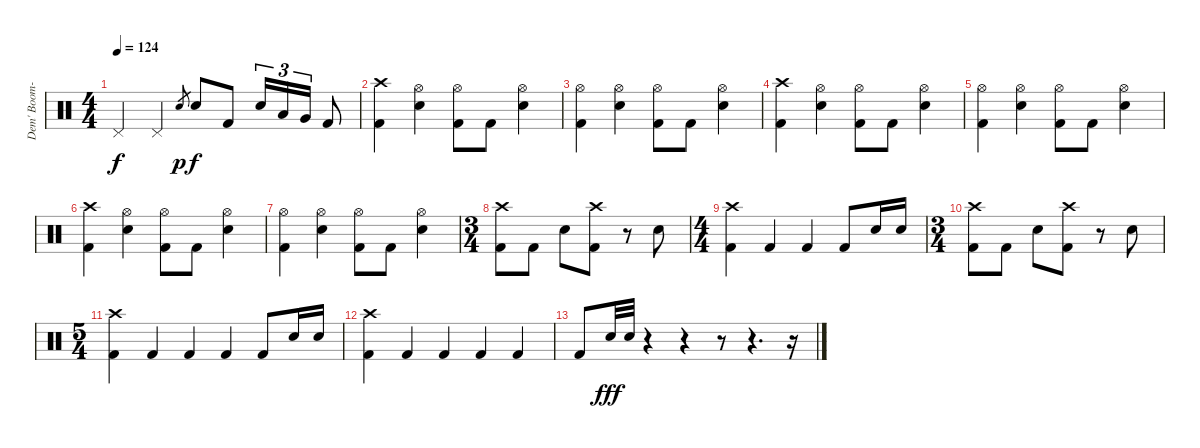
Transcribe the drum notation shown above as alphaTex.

\track ("Dem' Boom-Booms" "Dem' Boom-") {instrument percussion}
\staff {score}
\articulation defaults
\ts (4 4)
\tempo 124
\clef neutral
\ks c "Pedal Hi-Hat (hit)".4{dy f} "Pedal Hi-Hat (hit)".4 "Electric Snare (hit)".8{gr dy p} "Electric Snare (hit)".8{dy f} "Kick (hit) 2".8 "Electric Snare (hit)".16{tu (3 2)} "Low Tom (hit)".16{tu (3 2)} "Very Low Tom (hit)".16{tu (3 2)} "Kick (hit) 2".8
|
("Crash high (hit)" "Kick (hit) 2").4 ("Hi-Hat (open)" "Electric Snare (hit)").4 ("Hi-Hat (open)" "Kick (hit) 2").8 "Kick (hit) 2".8 ("Hi-Hat (open)" "Electric Snare (hit)").4 |
("Hi-Hat (open)" "Kick (hit) 2").4 ("Hi-Hat (open)" "Electric Snare (hit)").4 ("Hi-Hat (open)" "Kick (hit) 2").8 "Kick (hit) 2".8 ("Hi-Hat (open)" "Electric Snare (hit)").4 |
("Crash high (hit)" "Kick (hit) 2").4 ("Hi-Hat (open)" "Electric Snare (hit)").4 ("Hi-Hat (open)" "Kick (hit) 2").8 "Kick (hit) 2".8 ("Hi-Hat (open)" "Electric Snare (hit)").4 |
("Hi-Hat (open)" "Kick (hit) 2").4 ("Hi-Hat (open)" "Electric Snare (hit)").4 ("Hi-Hat (open)" "Kick (hit) 2").8 "Kick (hit) 2".8 ("Hi-Hat (open)" "Electric Snare (hit)").4 |
("Crash high (hit)" "Kick (hit) 2").4 ("Hi-Hat (open)" "Electric Snare (hit)").4 ("Hi-Hat (open)" "Kick (hit) 2").8 "Kick (hit) 2".8 ("Hi-Hat (open)" "Electric Snare (hit)").4 |
("Hi-Hat (open)" "Kick (hit) 2").4 ("Hi-Hat (open)" "Electric Snare (hit)").4 ("Hi-Hat (open)" "Kick (hit) 2").8 "Kick (hit) 2".8 ("Hi-Hat (open)" "Electric Snare (hit)").4 |
\ts (3 4)
("Crash high (hit)" "Kick (hit) 2").8 "Kick (hit) 2".8 "Electric Snare (hit)".8 ("Crash high (hit)" "Kick (hit) 2").8 r.8 "Electric Snare (hit)".8 |
\ts (4 4)
("Crash high (hit)" "Kick (hit) 2").4 "Kick (hit) 2".4 "Kick (hit) 2".4 "Kick (hit) 2".8 "Electric Snare (hit)".16 "Electric Snare (hit)".16 |
\ts (3 4)
("Crash high (hit)" "Kick (hit) 2").8 "Kick (hit) 2".8 "Electric Snare (hit)".8 ("Crash high (hit)" "Kick (hit) 2").8 r.8 "Electric Snare (hit)".8 |
\ts (5 4)
("Crash high (hit)" "Kick (hit) 2").4 "Kick (hit) 2".4 "Kick (hit) 2".4 "Kick (hit) 2".4 "Kick (hit) 2".8 "Electric Snare (hit)".16 "Electric Snare (hit)".16 |
("Crash high (hit)" "Kick (hit) 2").4 "Kick (hit) 2".4 "Kick (hit) 2".4 "Kick (hit) 2".4 "Kick (hit) 2".4 |
"Kick (hit) 2".8 "Electric Snare (hit)".32{dy fff} "Electric Snare (hit)".32 r.4 r.4 r.8 r.4{d} r.16
